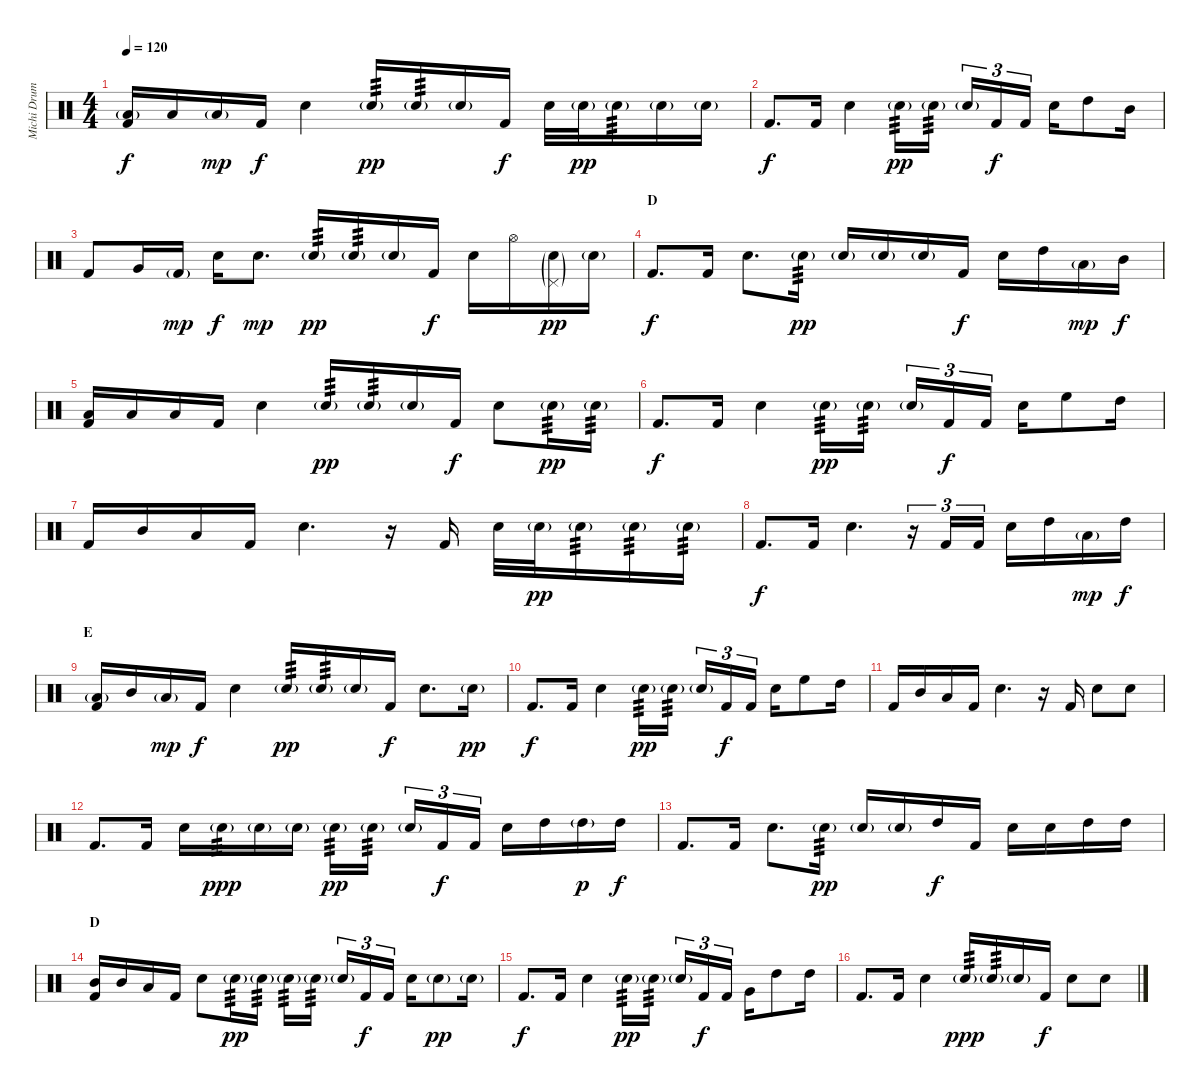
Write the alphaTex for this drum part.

\track ("Michi Drums" "Michi Drum") {instrument percussion}
\staff {score}
\articulation defaults
\ts (4 4)
\tempo 120
\clef neutral
\ks c
("Low Floor Tom (hit)"{g} "Kick (hit) 2").16{dy f} "Low Tom (hit)".16 "Low Floor Tom (hit)"{g}.16{dy mp} "Kick (hit) 2".16{dy f} "Electric Snare (hit)".4 "Electric Snare (hit)"{g}.16{tp 3 dy pp} "Electric Snare (hit)"{g}.16{tp 3} "Electric Snare (hit)"{g}.16 "Kick (hit) 2".16{dy f} "Electric Snare (hit)".32 "Electric Snare (hit)"{g}.32{dy pp} "Electric Snare (hit)"{g}.16{tp 3} "Electric Snare (hit)"{g}.16 "Electric Snare (hit)"{g}.16 |
"Kick (hit) 2".8{d dy f} "Kick (hit) 2".16 "Electric Snare (hit)".4 "Electric Snare (hit)"{g}.16{tp 3 dy pp} "Electric Snare (hit)"{g}.16{tp 3} "Electric Snare (hit)"{g}.16{tu (3 2)} "Kick (hit) 2".16{tu (3 2) dy f} "Kick (hit) 2".16{tu (3 2)} "Electric Snare (hit)".16 "High Tom (hit)".8 "Mid Tom (hit)".16 |
"Kick (hit) 2".8 "Very Low Tom (hit)".16 "Kick (hit) 2"{g}.16{dy mp} "Electric Snare (hit)".16{dy f} "Electric Snare (hit)".8{d dy mp} "Electric Snare (hit)"{g}.16{tp 3 dy pp} "Electric Snare (hit)"{g}.16{tp 3} "Electric Snare (hit)"{g}.16 "Kick (hit) 2".16{dy f} "Electric Snare (hit)".16 "Hi-Hat (open)".16 ("Pedal Hi-Hat (hit)"{g} "Electric Snare (hit)"{g}).16{dy pp} "Electric Snare (hit)"{g}.16 |
\section ("" "D")
"Kick (hit) 2".8{d dy f} "Kick (hit) 2".16 "Electric Snare (hit)".8{d} "Electric Snare (hit)"{g}.16{tp 3 dy pp} "Electric Snare (hit)"{g}.16 "Electric Snare (hit)"{g}.16 "Electric Snare (hit)"{g}.16 "Kick (hit) 2".16{dy f} "Electric Snare (hit)".16 "High Tom (hit)".16 "Low Floor Tom (hit)"{g}.16{dy mp} "Mid Tom (hit)".16{dy f} |
("Low Floor Tom (hit)" "Kick (hit) 2").16 "Low Tom (hit)".16 "Low Floor Tom (hit)".16 "Kick (hit) 2".16 "Electric Snare (hit)".4 "Electric Snare (hit)"{g}.16{tp 3 dy pp} "Electric Snare (hit)"{g}.16{tp 3} "Electric Snare (hit)"{g}.16 "Kick (hit) 2".16{dy f} "Electric Snare (hit)".8 "Electric Snare (hit)"{g}.16{tp 3 dy pp} "Electric Snare (hit)"{g}.16{tp 3} |
"Kick (hit) 2".8{d dy f} "Kick (hit) 2".16 "Electric Snare (hit)".4 "Electric Snare (hit)"{g}.16{tp 3 dy pp} "Electric Snare (hit)"{g}.16{tp 3} "Electric Snare (hit)"{g}.16{tu (3 2)} "Kick (hit) 2".16{tu (3 2) dy f} "Kick (hit) 2".16{tu (3 2)} "Electric Snare (hit)".16 "High Floor Tom (hit)".8 "High Tom (hit)".16 |
"Kick (hit) 2".16 "Mid Tom (hit)".16 "Low Floor Tom (hit)".16 "Kick (hit) 2".16 "Electric Snare (hit)".4{d} r.16 "Kick (hit) 2".16 "Electric Snare (hit)".32 "Electric Snare (hit)"{g}.32{dy pp} "Electric Snare (hit)"{g}.16{tp 3} "Electric Snare (hit)"{g}.16{tp 3} "Electric Snare (hit)"{g}.16{tp 3} |
"Kick (hit) 2".8{d dy f} "Kick (hit) 2".16 "Electric Snare (hit)".4{d} r.16{tu (3 2)} "Kick (hit) 2".16{tu (3 2)} "Kick (hit) 2".16{tu (3 2)} "Electric Snare (hit)".16 "High Tom (hit)".16 "Low Floor Tom (hit)"{g}.16{dy mp} "High Tom (hit)".16{dy f} |
\section ("" "E")
("Low Floor Tom (hit)"{g} "Kick (hit) 2").16 "Mid Tom (hit)".16 "Low Floor Tom (hit)"{g}.16{dy mp} "Kick (hit) 2".16{dy f} "Electric Snare (hit)".4 "Electric Snare (hit)"{g}.16{tp 3 dy pp} "Electric Snare (hit)"{g}.16{tp 3} "Electric Snare (hit)"{g}.16 "Kick (hit) 2".16{dy f} "Electric Snare (hit)".8{d} "Electric Snare (hit)"{g}.16{dy pp} |
"Kick (hit) 2".8{d dy f} "Kick (hit) 2".16 "Electric Snare (hit)".4 "Electric Snare (hit)"{g}.16{tp 3 dy pp} "Electric Snare (hit)"{g}.16{tp 3} "Electric Snare (hit)"{g}.16{tu (3 2)} "Kick (hit) 2".16{tu (3 2) dy f} "Kick (hit) 2".16{tu (3 2)} "Electric Snare (hit)".16 "High Floor Tom (hit)".8 "High Tom (hit)".16 |
"Kick (hit) 2".16 "Mid Tom (hit)".16 "Low Floor Tom (hit)".16 "Kick (hit) 2".16 "Electric Snare (hit)".4{d} r.16 "Kick (hit) 2".16 "Electric Snare (hit)".8 "Electric Snare (hit)".8 |
"Kick (hit) 2".8{d} "Kick (hit) 2".16 "Electric Snare (hit)".16 "Electric Snare (hit)"{g}.16{tp 3 dy ppp} "Electric Snare (hit)"{g}.16 "Electric Snare (hit)"{g}.16 "Electric Snare (hit)"{g}.16{tp 3 dy pp} "Electric Snare (hit)"{g}.16{tp 3} "Electric Snare (hit)"{g}.16{tu (3 2)} "Kick (hit) 2".16{tu (3 2) dy f} "Kick (hit) 2".16{tu (3 2)} "Electric Snare (hit)".16 "High Tom (hit)".16 "High Tom (hit)"{g}.16{dy p} "High Tom (hit)".16{dy f} |
"Kick (hit) 2".8{d} "Kick (hit) 2".16 "Electric Snare (hit)".8{d} "Electric Snare (hit)"{g}.16{tp 3 dy pp} "Electric Snare (hit)"{g}.16 "Electric Snare (hit)"{g}.16 "High Tom (hit)".16{dy f} "Kick (hit) 2".16 "Electric Snare (hit)".16 "Electric Snare (hit)".16 "High Tom (hit)".16 "High Tom (hit)".16 |
\section ("" "D")
("Mid Tom (hit)" "Kick (hit) 2").16 "Mid Tom (hit)".16 "Low Floor Tom (hit)".16 "Kick (hit) 2".16 "Electric Snare (hit)".8 "Electric Snare (hit)"{g}.16{tp 3 dy pp} "Electric Snare (hit)"{g}.16{tp 3} "Electric Snare (hit)"{g}.16{tp 3} "Electric Snare (hit)"{g}.16{tp 3} "Electric Snare (hit)"{g}.16{tu (3 2)} "Kick (hit) 2".16{tu (3 2) dy f} "Kick (hit) 2".16{tu (3 2)} "Electric Snare (hit)".16 "Electric Snare (hit)"{g}.8{dy pp} "Electric Snare (hit)"{g}.16 |
"Kick (hit) 2".8{d dy f} "Kick (hit) 2".16 "Electric Snare (hit)".4 "Electric Snare (hit)"{g}.16{tp 3 dy pp} "Electric Snare (hit)"{g}.16{tp 3} "Electric Snare (hit)"{g}.16{tu (3 2)} "Kick (hit) 2".16{tu (3 2) dy f} "Kick (hit) 2".16{tu (3 2)} "Very Low Tom (hit)".16 "High Tom (hit)".8 "High Tom (hit)".16 |
"Kick (hit) 2".8{d} "Kick (hit) 2".16 "Electric Snare (hit)".4 "Electric Snare (hit)"{g}.16{tp 3 dy ppp} "Electric Snare (hit)"{g}.16{tp 3} "Electric Snare (hit)"{g}.16 "Kick (hit) 2".16{dy f} "Electric Snare (hit)".8 "Electric Snare (hit)".8
